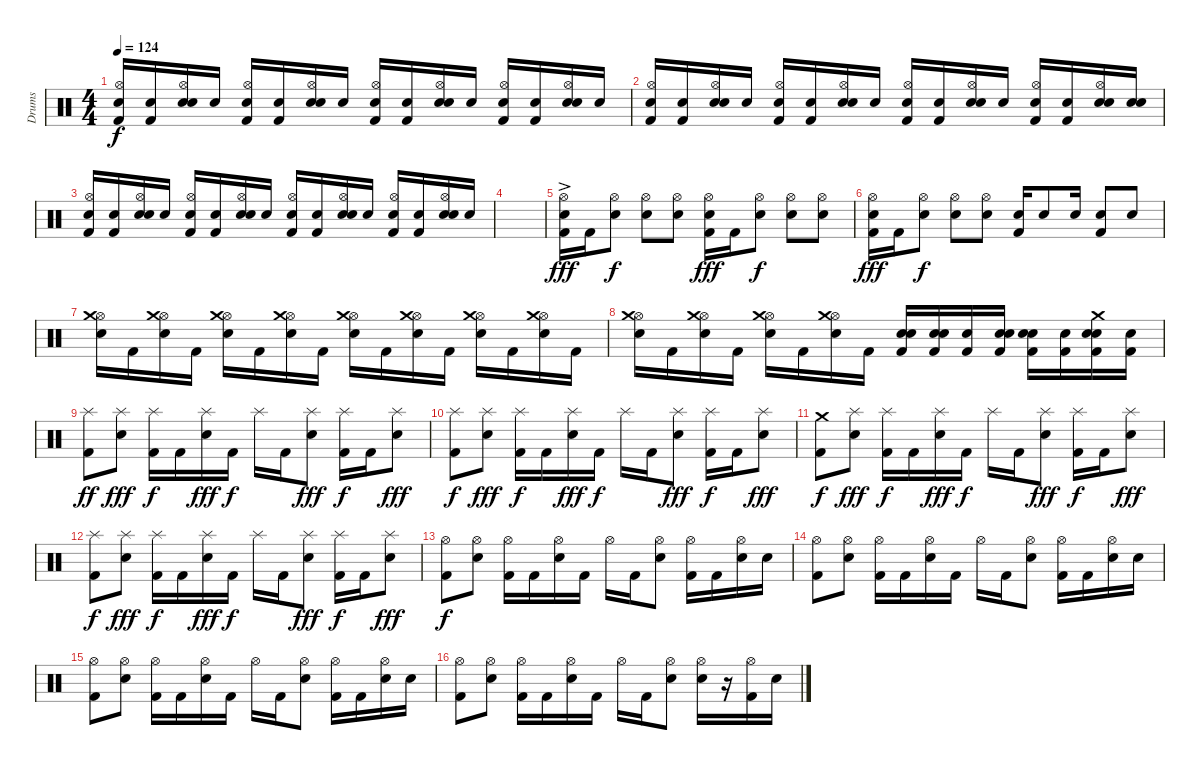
\track ("Drums" "Drums") {instrument percussion}
\staff {score}
\articulation defaults
\ts (4 4)
\tempo 124
\clef neutral
\ks c
("Snare (hit)"{x} "Hi-Hat (open)" "Kick (hit) 2").16{dy f} ("Snare (hit)"{x} "Kick (hit) 2").16 ("Snare (hit)"{x} "Hi-Hat (open)" "Electric Snare (hit)").16 "Snare (hit)"{x}.16 ("Snare (hit)"{x} "Hi-Hat (open)" "Kick (hit) 2").16 ("Snare (hit)"{x} "Kick (hit) 2").16 ("Snare (hit)"{x} "Hi-Hat (open)" "Electric Snare (hit)").16 "Snare (hit)"{x}.16 ("Snare (hit)"{x} "Hi-Hat (open)" "Kick (hit) 2").16 ("Snare (hit)"{x} "Kick (hit) 2").16 ("Snare (hit)"{x} "Hi-Hat (open)" "Electric Snare (hit)").16 "Snare (hit)"{x}.16 ("Snare (hit)"{x} "Hi-Hat (open)" "Kick (hit) 2").16 ("Snare (hit)"{x} "Kick (hit) 2").16 ("Snare (hit)"{x} "Hi-Hat (open)" "Electric Snare (hit)").16 "Snare (hit)"{x}.16 |
("Snare (hit)"{x} "Hi-Hat (open)" "Kick (hit) 2").16 ("Snare (hit)"{x} "Kick (hit) 2").16 ("Snare (hit)"{x} "Hi-Hat (open)" "Electric Snare (hit)").16 "Snare (hit)"{x}.16 ("Snare (hit)"{x} "Hi-Hat (open)" "Kick (hit) 2").16 ("Snare (hit)"{x} "Kick (hit) 2").16 ("Snare (hit)"{x} "Hi-Hat (open)" "Electric Snare (hit)").16 "Snare (hit)"{x}.16 ("Snare (hit)"{x} "Hi-Hat (open)" "Kick (hit) 2").16 ("Snare (hit)"{x} "Kick (hit) 2").16 ("Snare (hit)"{x} "Hi-Hat (open)" "Electric Snare (hit)").16 "Snare (hit)"{x}.16 ("Snare (hit)"{x} "Hi-Hat (open)" "Kick (hit) 2").16 ("Snare (hit)"{x} "Kick (hit) 2").16 ("Snare (hit)"{x} "Hi-Hat (open)" "Electric Snare (hit)").16 ("Snare (hit)"{x} "Electric Snare (hit)").16 |
("Snare (hit)"{x} "Hi-Hat (open)" "Kick (hit) 2").16 ("Snare (hit)"{x} "Kick (hit) 2").16 ("Snare (hit)"{x} "Hi-Hat (open)" "Electric Snare (hit)").16 "Snare (hit)"{x}.16 ("Snare (hit)"{x} "Hi-Hat (open)" "Kick (hit) 2").16 ("Snare (hit)"{x} "Kick (hit) 2").16 ("Snare (hit)"{x} "Hi-Hat (open)" "Electric Snare (hit)").16 "Snare (hit)"{x}.16 ("Snare (hit)"{x} "Hi-Hat (open)" "Kick (hit) 2").16 ("Snare (hit)"{x} "Kick (hit) 2").16 ("Snare (hit)"{x} "Hi-Hat (open)" "Electric Snare (hit)").16 "Snare (hit)"{x}.16 ("Snare (hit)"{x} "Hi-Hat (open)" "Kick (hit) 2").16 ("Snare (hit)"{x} "Kick (hit) 2").16 ("Snare (hit)"{x} "Hi-Hat (open)" "Electric Snare (hit)").16 "Snare (hit)"{x}.16 |
|
("Hi-Hat (open)" "Snare (hit) 2" "Kick (hit) 2"{tr (36 16) ac}).16{dy fff} "Kick (hit) 2".16 ("Hi-Hat (open)" "Snare (hit) 2").8{dy f} ("Hi-Hat (open)" "Snare (hit) 2").8 ("Hi-Hat (open)" "Snare (hit) 2").8 ("Hi-Hat (open)" "Snare (hit) 2" "Kick (hit) 2"{tr (36 16)}).16{dy fff} "Kick (hit) 2".16 ("Hi-Hat (open)" "Snare (hit) 2").8{dy f} ("Hi-Hat (open)" "Snare (hit) 2").8 ("Hi-Hat (open)" "Snare (hit) 2").8 |
("Hi-Hat (open)" "Snare (hit) 2" "Kick (hit) 2").16{dy fff} "Kick (hit) 2".16 ("Hi-Hat (open)" "Snare (hit) 2").8{dy f} ("Hi-Hat (open)" "Snare (hit) 2").8 ("Hi-Hat (open)" "Snare (hit) 2").8 ("Snare (hit) 2" "Kick (hit) 2").16 "Snare (hit) 2".8 "Snare (hit) 2".16 ("Snare (hit) 2" "Kick (hit) 2").8 "Snare (hit) 2".8 |
("Hi-Hat (open)" "Electric Snare (hit)" "Crash medium (hit)").16 "Kick (hit) 2".16 ("Hi-Hat (open)" "Electric Snare (hit)" "Crash medium (hit)").16 "Kick (hit) 2".16 ("Hi-Hat (open)" "Electric Snare (hit)" "Crash medium (hit)").16 "Kick (hit) 2".16 ("Hi-Hat (open)" "Electric Snare (hit)" "Crash medium (hit)").16 "Kick (hit) 2".16 ("Hi-Hat (open)" "Electric Snare (hit)" "Crash medium (hit)").16 "Kick (hit) 2".16 ("Hi-Hat (open)" "Electric Snare (hit)" "Crash medium (hit)").16 "Kick (hit) 2".16 ("Hi-Hat (open)" "Electric Snare (hit)" "Crash medium (hit)").16 "Kick (hit) 2".16 ("Hi-Hat (open)" "Electric Snare (hit)" "Crash medium (hit)").16 "Kick (hit) 2".16 |
("Hi-Hat (open)" "Electric Snare (hit)" "Crash medium (hit)").16 "Kick (hit) 2".16 ("Hi-Hat (open)" "Electric Snare (hit)" "Crash medium (hit)").16 "Kick (hit) 2".16 ("Hi-Hat (open)" "Electric Snare (hit)" "Crash medium (hit)").16 "Kick (hit) 2".16 ("Hi-Hat (open)" "Electric Snare (hit)" "Crash medium (hit)").16 "Kick (hit) 2".16 ("Snare (hit)"{x} "Electric Snare (hit)" "Kick (hit) 2").16 ("Snare (hit)"{x} "Electric Snare (hit)" "Kick (hit) 2").16 ("Snare (hit)"{x} "Kick (hit) 2").16 ("Snare (hit)"{x} "Electric Snare (hit)" "Kick (hit) 2").16 ("Snare (hit)"{x} "Electric Snare (hit)" "Kick (hit) 2").16 ("Snare (hit)"{x} "Kick (hit) 2").16 ("Snare (hit)"{x} "Crash medium (hit)" "Electric Snare (hit)" "Kick (hit) 2").16 ("Snare (hit)"{x} "Kick (hit) 2").16 |
("Splash (hit)" "Kick (hit) 2").8{dy ff} ("Splash (hit)" "Electric Snare (hit)").8{dy fff} ("Splash (hit)" "Kick (hit) 2").16{dy f} "Kick (hit) 2".16 ("Splash (hit)" "Electric Snare (hit)").16{dy fff} "Kick (hit) 2".16{dy f} "Splash (hit)".16 "Kick (hit) 2".16 ("Splash (hit)" "Electric Snare (hit)").8{dy fff} ("Splash (hit)" "Kick (hit) 2").16{dy f} "Kick (hit) 2".16 ("Splash (hit)" "Electric Snare (hit)").8{dy fff} |
("Splash (hit)" "Kick (hit) 2").8{dy f} ("Splash (hit)" "Electric Snare (hit)").8{dy fff} ("Splash (hit)" "Kick (hit) 2").16{dy f} "Kick (hit) 2".16 ("Splash (hit)" "Electric Snare (hit)").16{dy fff} "Kick (hit) 2".16{dy f} "Splash (hit)".16 "Kick (hit) 2".16 ("Splash (hit)" "Electric Snare (hit)").8{dy fff} ("Splash (hit)" "Kick (hit) 2").16{dy f} "Kick (hit) 2".16 ("Splash (hit)" "Electric Snare (hit)").8{dy fff} |
("Crash medium (hit)" "Kick (hit) 2").8{dy f} ("Splash (hit)" "Electric Snare (hit)").8{dy fff} ("Splash (hit)" "Kick (hit) 2").16{dy f} "Kick (hit) 2".16 ("Splash (hit)" "Electric Snare (hit)").16{dy fff} "Kick (hit) 2".16{dy f} "Splash (hit)".16 "Kick (hit) 2".16 ("Splash (hit)" "Electric Snare (hit)").8{dy fff} ("Splash (hit)" "Kick (hit) 2").16{dy f} "Kick (hit) 2".16 ("Splash (hit)" "Electric Snare (hit)").8{dy fff} |
("Splash (hit)" "Kick (hit) 2").8{dy f} ("Splash (hit)" "Electric Snare (hit)").8{dy fff} ("Splash (hit)" "Kick (hit) 2").16{dy f} "Kick (hit) 2".16 ("Splash (hit)" "Electric Snare (hit)").16{dy fff} "Kick (hit) 2".16{dy f} "Splash (hit)".16 "Kick (hit) 2".16 ("Splash (hit)" "Electric Snare (hit)").8{dy fff} ("Splash (hit)" "Kick (hit) 2").16{dy f} "Kick (hit) 2".16 ("Splash (hit)" "Electric Snare (hit)").8{dy fff} |
("Hi-Hat (open)" "Kick (hit) 2").8{dy f} ("Hi-Hat (open)" "Electric Snare (hit)").8 ("Hi-Hat (open)" "Kick (hit) 2").16 "Kick (hit) 2".16 ("Hi-Hat (open)" "Electric Snare (hit)").16 "Kick (hit) 2".16 "Hi-Hat (open)".16 "Kick (hit) 2".16 ("Hi-Hat (open)" "Electric Snare (hit)").8 ("Hi-Hat (open)" "Kick (hit) 2").16 "Kick (hit) 2".16 ("Hi-Hat (open)" "Electric Snare (hit)").16 "Electric Snare (hit)".16 |
("Hi-Hat (open)" "Kick (hit) 2").8 ("Hi-Hat (open)" "Electric Snare (hit)").8 ("Hi-Hat (open)" "Kick (hit) 2").16 "Kick (hit) 2".16 ("Hi-Hat (open)" "Electric Snare (hit)").16 "Kick (hit) 2".16 "Hi-Hat (open)".16 "Kick (hit) 2".16 ("Hi-Hat (open)" "Electric Snare (hit)").8 ("Hi-Hat (open)" "Kick (hit) 2").16 "Kick (hit) 2".16 ("Hi-Hat (open)" "Electric Snare (hit)").16 "Electric Snare (hit)".16 |
("Hi-Hat (open)" "Kick (hit) 2").8 ("Hi-Hat (open)" "Electric Snare (hit)").8 ("Hi-Hat (open)" "Kick (hit) 2").16 "Kick (hit) 2".16 ("Hi-Hat (open)" "Electric Snare (hit)").16 "Kick (hit) 2".16 "Hi-Hat (open)".16 "Kick (hit) 2".16 ("Hi-Hat (open)" "Electric Snare (hit)").8 ("Hi-Hat (open)" "Kick (hit) 2").16 "Kick (hit) 2".16 ("Hi-Hat (open)" "Electric Snare (hit)").16 "Electric Snare (hit)".16 |
("Hi-Hat (open)" "Kick (hit) 2").8 ("Hi-Hat (open)" "Electric Snare (hit)").8 ("Hi-Hat (open)" "Kick (hit) 2").16 "Kick (hit) 2".16 ("Hi-Hat (open)" "Electric Snare (hit)").16 "Kick (hit) 2".16 "Hi-Hat (open)".16 "Kick (hit) 2".16 ("Hi-Hat (open)" "Electric Snare (hit)").8 ("Hi-Hat (open)" "Electric Snare (hit)").16 r.16 ("Hi-Hat (open)" "Kick (hit) 2").16 "Snare (hit)"{x}.16
